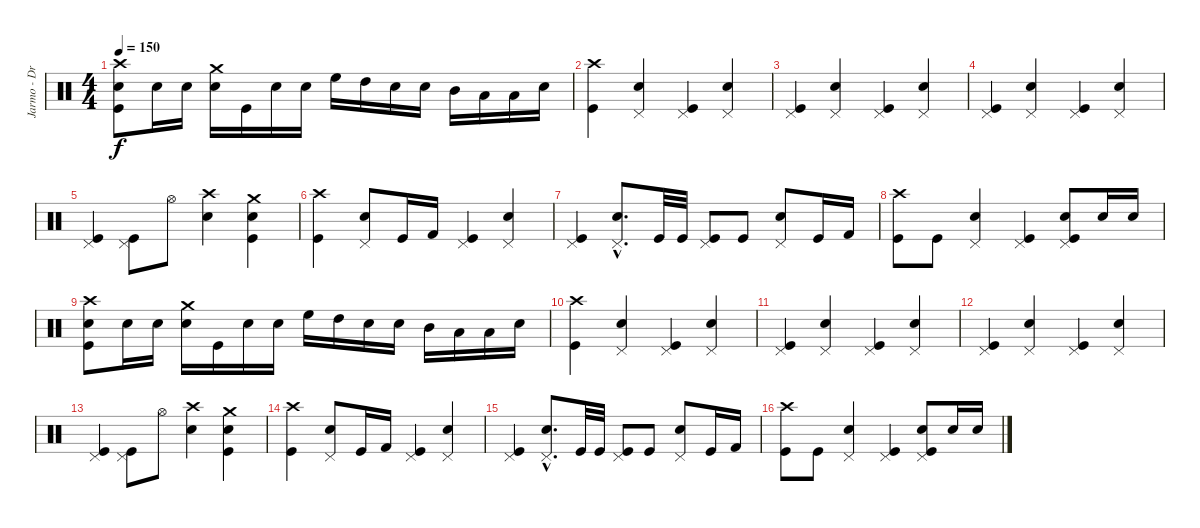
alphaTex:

\track ("Jarmo - Drums/Vodka" "Jarmo - Dr") {instrument percussion}
\staff {score}
\articulation defaults
\ts (4 4)
\tempo 150
\clef neutral
\ks c
("Kick (hit)" "Electric Snare (hit)" "Crash high (hit)").8{dy f} "Electric Snare (hit)".16 "Electric Snare (hit)".16 ("Electric Snare (hit)" "Crash medium (hit)").16 "Kick (hit)".16 "Electric Snare (hit)".16 "Electric Snare (hit)".16 "High Floor Tom (hit)".16 "High Tom (hit)".16 "Electric Snare (hit)".16 "Electric Snare (hit)".16 "Mid Tom (hit)".16 "Low Tom (hit)".16 "Low Tom (hit)".16 "Electric Snare (hit)".16 |
("Kick (hit)" "Crash high (hit)").4 ("Electric Snare (hit)" "Pedal Hi-Hat (hit)").4 ("Kick (hit)" "Pedal Hi-Hat (hit)").4 ("Electric Snare (hit)" "Pedal Hi-Hat (hit)").4 |
("Kick (hit)" "Pedal Hi-Hat (hit)").4 ("Electric Snare (hit)" "Pedal Hi-Hat (hit)").4 ("Kick (hit)" "Pedal Hi-Hat (hit)").4 ("Electric Snare (hit)" "Pedal Hi-Hat (hit)").4 |
("Kick (hit)" "Pedal Hi-Hat (hit)").4 ("Electric Snare (hit)" "Pedal Hi-Hat (hit)").4 ("Kick (hit)" "Pedal Hi-Hat (hit)").4 ("Electric Snare (hit)" "Pedal Hi-Hat (hit)").4 |
("Kick (hit)" "Pedal Hi-Hat (hit)").4 ("Kick (hit)" "Pedal Hi-Hat (hit)").8 "Hi-Hat (open)".8 ("Electric Snare (hit)" "Crash high (hit)").4 ("Kick (hit)" "Electric Snare (hit)" "Crash medium (hit)").4 |
("Kick (hit)" "Crash high (hit)").4 ("Electric Snare (hit)" "Pedal Hi-Hat (hit)").8 "Kick (hit)".16 "Kick (hit) 2".16 ("Kick (hit)" "Pedal Hi-Hat (hit)").4 ("Electric Snare (hit)" "Pedal Hi-Hat (hit)").4 |
("Kick (hit)" "Pedal Hi-Hat (hit)").4 ("Electric Snare (hit)"{hac} "Pedal Hi-Hat (hit)"{hac}).8{d} "Kick (hit)".32 "Kick (hit)".32 ("Kick (hit)" "Pedal Hi-Hat (hit)").8 "Kick (hit)".8 ("Electric Snare (hit)" "Pedal Hi-Hat (hit)").8 "Kick (hit)".16 "Kick (hit) 2".16 |
("Kick (hit)" "Crash high (hit)").8 "Kick (hit)".8 ("Electric Snare (hit)" "Pedal Hi-Hat (hit)").4 ("Kick (hit)" "Pedal Hi-Hat (hit)").4 ("Kick (hit)" "Electric Snare (hit)" "Pedal Hi-Hat (hit)").8 "Electric Snare (hit)".16 "Electric Snare (hit)".16 |
("Kick (hit)" "Electric Snare (hit)" "Crash high (hit)").8 "Electric Snare (hit)".16 "Electric Snare (hit)".16 ("Electric Snare (hit)" "Crash medium (hit)").16 "Kick (hit)".16 "Electric Snare (hit)".16 "Electric Snare (hit)".16 "High Floor Tom (hit)".16 "High Tom (hit)".16 "Electric Snare (hit)".16 "Electric Snare (hit)".16 "Mid Tom (hit)".16 "Low Tom (hit)".16 "Low Tom (hit)".16 "Electric Snare (hit)".16 |
("Kick (hit)" "Crash high (hit)").4 ("Electric Snare (hit)" "Pedal Hi-Hat (hit)").4 ("Kick (hit)" "Pedal Hi-Hat (hit)").4 ("Electric Snare (hit)" "Pedal Hi-Hat (hit)").4 |
("Kick (hit)" "Pedal Hi-Hat (hit)").4 ("Electric Snare (hit)" "Pedal Hi-Hat (hit)").4 ("Kick (hit)" "Pedal Hi-Hat (hit)").4 ("Electric Snare (hit)" "Pedal Hi-Hat (hit)").4 |
("Kick (hit)" "Pedal Hi-Hat (hit)").4 ("Electric Snare (hit)" "Pedal Hi-Hat (hit)").4 ("Kick (hit)" "Pedal Hi-Hat (hit)").4 ("Electric Snare (hit)" "Pedal Hi-Hat (hit)").4 |
("Kick (hit)" "Pedal Hi-Hat (hit)").4 ("Kick (hit)" "Pedal Hi-Hat (hit)").8 "Hi-Hat (open)".8 ("Electric Snare (hit)" "Crash high (hit)").4 ("Kick (hit)" "Electric Snare (hit)" "Crash medium (hit)").4 |
("Kick (hit)" "Crash high (hit)").4 ("Electric Snare (hit)" "Pedal Hi-Hat (hit)").8 "Kick (hit)".16 "Kick (hit) 2".16 ("Kick (hit)" "Pedal Hi-Hat (hit)").4 ("Electric Snare (hit)" "Pedal Hi-Hat (hit)").4 |
("Kick (hit)" "Pedal Hi-Hat (hit)").4 ("Electric Snare (hit)"{hac} "Pedal Hi-Hat (hit)"{hac}).8{d} "Kick (hit)".32 "Kick (hit)".32 ("Kick (hit)" "Pedal Hi-Hat (hit)").8 "Kick (hit)".8 ("Electric Snare (hit)" "Pedal Hi-Hat (hit)").8 "Kick (hit)".16 "Kick (hit) 2".16 |
("Kick (hit)" "Crash high (hit)").8 "Kick (hit)".8 ("Electric Snare (hit)" "Pedal Hi-Hat (hit)").4 ("Kick (hit)" "Pedal Hi-Hat (hit)").4 ("Kick (hit)" "Electric Snare (hit)" "Pedal Hi-Hat (hit)").8 "Electric Snare (hit)".16 "Electric Snare (hit)".16
